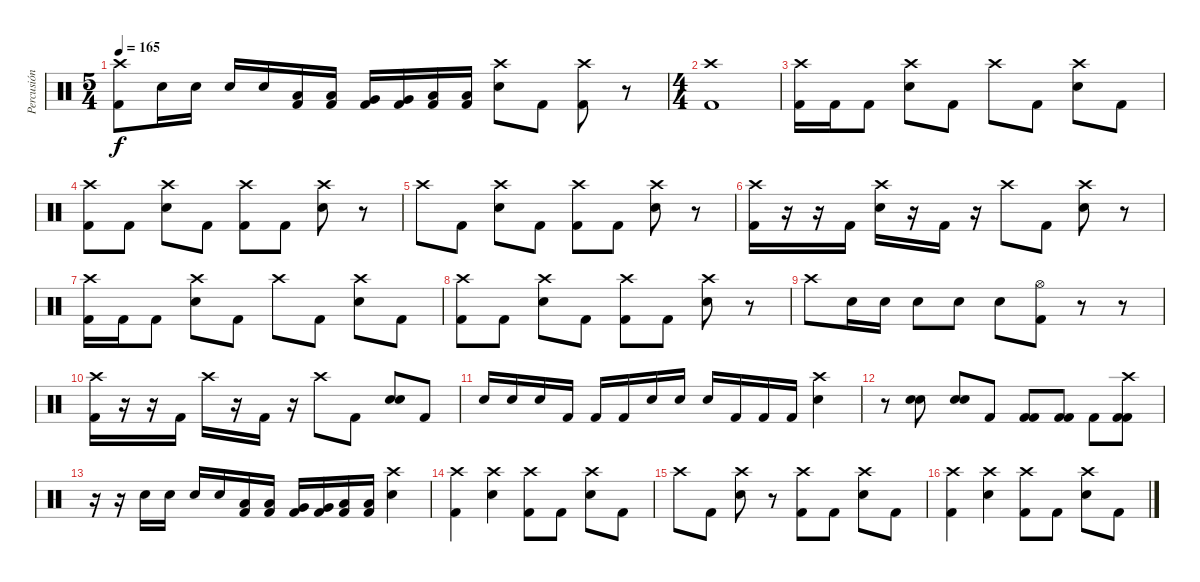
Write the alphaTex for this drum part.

\track ("Percusión" "Percusión") {instrument percussion}
\staff {score}
\articulation defaults
\ts (5 4)
\tempo 165
\clef neutral
\ks c
("Crash high (hit)" "Kick (hit) 2").8{dy f} "Electric Snare (hit)".16 "Electric Snare (hit)".16 "Electric Snare (hit)".16 "Electric Snare (hit)".16 ("Low Tom (hit)" "Kick (hit) 2").16 ("Low Tom (hit)" "Kick (hit) 2").16 ("Very Low Tom (hit)" "Kick (hit) 2").16 ("Very Low Tom (hit)" "Kick (hit) 2").16 ("Low Tom (hit)" "Kick (hit) 2").16 ("Low Tom (hit)" "Kick (hit) 2").16 ("Crash high (hit)" "Electric Snare (hit)").8 "Kick (hit) 2".8 ("Crash high (hit)" "Kick (hit) 2").8 r.8 |
\ts (4 4)
("Crash high (hit)" "Kick (hit) 2").1 |
("Crash high (hit)" "Kick (hit) 2").16 "Kick (hit) 2".16 "Kick (hit) 2".8 ("Crash high (hit)" "Electric Snare (hit)").8 "Kick (hit) 2".8 "Crash high (hit)".8 "Kick (hit) 2".8 ("Crash high (hit)" "Electric Snare (hit)").8 "Kick (hit) 2".8 |
("Crash high (hit)" "Kick (hit) 2").8 "Kick (hit) 2".8 ("Crash high (hit)" "Electric Snare (hit)").8 "Kick (hit) 2".8 ("Crash high (hit)" "Kick (hit) 2").8 "Kick (hit) 2".8 ("Crash high (hit)" "Electric Snare (hit)").8 r.8 |
"Crash high (hit)".8 "Kick (hit) 2".8 ("Crash high (hit)" "Electric Snare (hit)").8 "Kick (hit) 2".8 ("Crash high (hit)" "Kick (hit) 2").8 "Kick (hit) 2".8 ("Crash high (hit)" "Electric Snare (hit)").8 r.8 |
("Crash high (hit)" "Kick (hit) 2").16 r.16 r.16 "Kick (hit) 2".16 ("Crash high (hit)" "Electric Snare (hit)").16 r.16 "Kick (hit) 2".16 r.16 "Crash high (hit)".8 "Kick (hit) 2".8 ("Crash high (hit)" "Electric Snare (hit)").8 r.8 |
("Crash high (hit)" "Kick (hit) 2").16 "Kick (hit) 2".16 "Kick (hit) 2".8 ("Crash high (hit)" "Electric Snare (hit)").8 "Kick (hit) 2".8 "Crash high (hit)".8 "Kick (hit) 2".8 ("Crash high (hit)" "Electric Snare (hit)").8 "Kick (hit) 2".8 |
("Crash high (hit)" "Kick (hit) 2").8 "Kick (hit) 2".8 ("Crash high (hit)" "Electric Snare (hit)").8 "Kick (hit) 2".8 ("Crash high (hit)" "Kick (hit) 2").8 "Kick (hit) 2".8 ("Crash high (hit)" "Electric Snare (hit)").8 r.8 |
"Crash high (hit)".8 "Electric Snare (hit)".16 "Electric Snare (hit)".16 "Electric Snare (hit)".8 "Electric Snare (hit)".8 "Electric Snare (hit)".8 ("Hi-Hat (open)" "Kick (hit) 2").8 r.8 r.8 |
("Crash high (hit)" "Kick (hit) 2").16 r.16 r.16 "Kick (hit) 2".16 "Crash high (hit)".16 r.16 "Kick (hit) 2".16 r.16 "Crash high (hit)".8 "Kick (hit) 2".8 ("Electric Snare (hit)" "Electric Snare (hit)").8{bu 60} "Kick (hit) 2".8 |
"Electric Snare (hit)".16 "Electric Snare (hit)".16 "Electric Snare (hit)".16 "Kick (hit) 2".16 "Kick (hit) 2".16 "Kick (hit) 2".16 "Electric Snare (hit)".16 "Electric Snare (hit)".16 "Electric Snare (hit)".16 "Kick (hit) 2".16 "Kick (hit) 2".16 "Kick (hit) 2".16 ("Crash high (hit)" "Electric Snare (hit)").4 |
r.8 ("Electric Snare (hit)" "Electric Snare (hit)").8{bu 60} ("Electric Snare (hit)" "Electric Snare (hit)").8{bu 60} "Kick (hit) 2".8 ("Kick (hit) 2" "Kick (hit) 2").8{bu 60} ("Kick (hit) 2" "Kick (hit) 2").8{bu 60} "Kick (hit) 2".8 ("Crash high (hit)" "Kick (hit) 2" "Kick (hit) 2").8{bu 60} |
r.16 r.16 "Electric Snare (hit)".16 "Electric Snare (hit)".16 "Electric Snare (hit)".16 "Electric Snare (hit)".16 ("Low Tom (hit)" "Kick (hit) 2").16 ("Low Tom (hit)" "Kick (hit) 2").16 ("Very Low Tom (hit)" "Kick (hit) 2").16 ("Very Low Tom (hit)" "Kick (hit) 2").16 ("Low Tom (hit)" "Kick (hit) 2").16 ("Low Tom (hit)" "Kick (hit) 2").16 ("Crash high (hit)" "Electric Snare (hit)").4 |
("Crash high (hit)" "Kick (hit) 2").4 ("Crash high (hit)" "Electric Snare (hit)").4 ("Crash high (hit)" "Kick (hit) 2").8 "Kick (hit) 2".8 ("Crash high (hit)" "Electric Snare (hit)").8 "Kick (hit) 2".8 |
"Crash high (hit)".8 "Kick (hit) 2".8 ("Crash high (hit)" "Electric Snare (hit)").8 r.8 ("Crash high (hit)" "Kick (hit) 2").8 "Kick (hit) 2".8 ("Crash high (hit)" "Electric Snare (hit)").8 "Kick (hit) 2".8 |
("Crash high (hit)" "Kick (hit) 2").4 ("Crash high (hit)" "Electric Snare (hit)").4 ("Crash high (hit)" "Kick (hit) 2").8 "Kick (hit) 2".8 ("Crash high (hit)" "Electric Snare (hit)").8 "Kick (hit) 2".8
